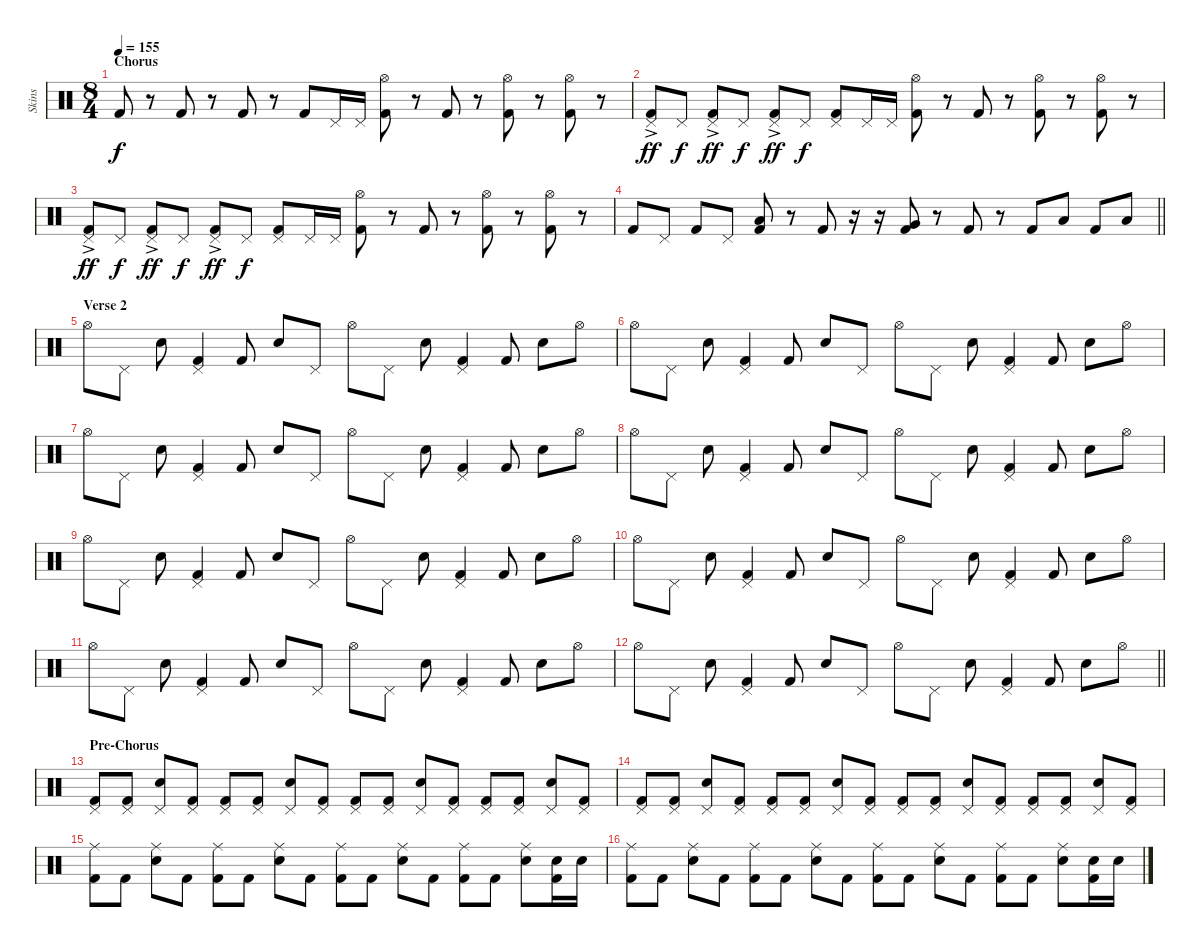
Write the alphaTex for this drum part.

\track ("Skins" "Skins") {instrument percussion}
\staff {score}
\articulation defaults
\ts (8 4)
\section ("" "Chorus")
\tempo 155
\clef neutral
\ks c "Kick (hit) 2".8{dy f}
r.8 "Kick (hit) 2".8 r.8 "Kick (hit) 2".8 r.8 "Kick (hit) 2".8 "Pedal Hi-Hat (hit)".16 "Pedal Hi-Hat (hit)".16 ("Hi-Hat (open)" "Kick (hit) 2").8 r.8 "Kick (hit) 2".8 r.8 ("Hi-Hat (open)" "Kick (hit) 2").8 r.8 ("Hi-Hat (open)" "Kick (hit) 2").8 r.8 |
("Pedal Hi-Hat (hit)"{ac} "Kick (hit) 2").8{dy ff} "Pedal Hi-Hat (hit)".8{dy f} ("Pedal Hi-Hat (hit)"{ac} "Kick (hit) 2").8{dy ff} "Pedal Hi-Hat (hit)".8{dy f} ("Pedal Hi-Hat (hit)"{ac} "Kick (hit) 2").8{dy ff} "Pedal Hi-Hat (hit)".8{dy f} ("Pedal Hi-Hat (hit)" "Kick (hit) 2").8 "Pedal Hi-Hat (hit)".16 "Pedal Hi-Hat (hit)".16 ("Hi-Hat (open)" "Kick (hit) 2").8 r.8 "Kick (hit) 2".8 r.8 ("Hi-Hat (open)" "Kick (hit) 2").8 r.8 ("Hi-Hat (open)" "Kick (hit) 2").8 r.8 |
("Pedal Hi-Hat (hit)"{ac} "Kick (hit) 2").8{dy ff} "Pedal Hi-Hat (hit)".8{dy f} ("Pedal Hi-Hat (hit)"{ac} "Kick (hit) 2").8{dy ff} "Pedal Hi-Hat (hit)".8{dy f} ("Pedal Hi-Hat (hit)"{ac} "Kick (hit) 2").8{dy ff} "Pedal Hi-Hat (hit)".8{dy f} ("Pedal Hi-Hat (hit)" "Kick (hit) 2").8 "Pedal Hi-Hat (hit)".16 "Pedal Hi-Hat (hit)".16 ("Hi-Hat (open)" "Kick (hit) 2").8 r.8 "Kick (hit) 2".8 r.8 ("Hi-Hat (open)" "Kick (hit) 2").8 r.8 ("Hi-Hat (open)" "Kick (hit) 2").8 r.8 |
\barLineRight lightlight "Kick (hit) 2".8 "Pedal Hi-Hat (hit)".8 "Kick (hit) 2".8 "Pedal Hi-Hat (hit)".8
("Low Tom (hit)" "Kick (hit) 2").8 r.8 "Kick (hit) 2".8 r.16 r.16 ("Very Low Tom (hit)" "Kick (hit) 2").8 r.8 "Kick (hit) 2".8 r.8 "Kick (hit) 2".8 "Low Tom (hit)".8 "Kick (hit) 2".8 "Low Floor Tom (hit)".8 |
\section ("" "Verse 2")
"Hi-Hat (open)".8 "Pedal Hi-Hat (hit)".8 "Electric Snare (hit)".8 ("Pedal Hi-Hat (hit)" "Kick (hit) 2").4 "Kick (hit) 2".8 "Electric Snare (hit)".8 "Pedal Hi-Hat (hit)".8 "Hi-Hat (open)".8 "Pedal Hi-Hat (hit)".8 "Electric Snare (hit)".8 ("Pedal Hi-Hat (hit)" "Kick (hit) 2").4 "Kick (hit) 2".8 "Electric Snare (hit)".8 "Hi-Hat (open)".8 |
"Hi-Hat (open)".8 "Pedal Hi-Hat (hit)".8 "Electric Snare (hit)".8 ("Pedal Hi-Hat (hit)" "Kick (hit) 2").4 "Kick (hit) 2".8 "Electric Snare (hit)".8 "Pedal Hi-Hat (hit)".8 "Hi-Hat (open)".8 "Pedal Hi-Hat (hit)".8 "Electric Snare (hit)".8 ("Pedal Hi-Hat (hit)" "Kick (hit) 2").4 "Kick (hit) 2".8 "Electric Snare (hit)".8 "Hi-Hat (open)".8 |
"Hi-Hat (open)".8 "Pedal Hi-Hat (hit)".8 "Electric Snare (hit)".8 ("Pedal Hi-Hat (hit)" "Kick (hit) 2").4 "Kick (hit) 2".8 "Electric Snare (hit)".8 "Pedal Hi-Hat (hit)".8 "Hi-Hat (open)".8 "Pedal Hi-Hat (hit)".8 "Electric Snare (hit)".8 ("Pedal Hi-Hat (hit)" "Kick (hit) 2").4 "Kick (hit) 2".8 "Electric Snare (hit)".8 "Hi-Hat (open)".8 |
"Hi-Hat (open)".8 "Pedal Hi-Hat (hit)".8 "Electric Snare (hit)".8 ("Pedal Hi-Hat (hit)" "Kick (hit) 2").4 "Kick (hit) 2".8 "Electric Snare (hit)".8 "Pedal Hi-Hat (hit)".8 "Hi-Hat (open)".8 "Pedal Hi-Hat (hit)".8 "Electric Snare (hit)".8 ("Pedal Hi-Hat (hit)" "Kick (hit) 2").4 "Kick (hit) 2".8 "Electric Snare (hit)".8 "Hi-Hat (open)".8 |
"Hi-Hat (open)".8 "Pedal Hi-Hat (hit)".8 "Electric Snare (hit)".8 ("Pedal Hi-Hat (hit)" "Kick (hit) 2").4 "Kick (hit) 2".8 "Electric Snare (hit)".8 "Pedal Hi-Hat (hit)".8 "Hi-Hat (open)".8 "Pedal Hi-Hat (hit)".8 "Electric Snare (hit)".8 ("Pedal Hi-Hat (hit)" "Kick (hit) 2").4 "Kick (hit) 2".8 "Electric Snare (hit)".8 "Hi-Hat (open)".8 |
"Hi-Hat (open)".8 "Pedal Hi-Hat (hit)".8 "Electric Snare (hit)".8 ("Pedal Hi-Hat (hit)" "Kick (hit) 2").4 "Kick (hit) 2".8 "Electric Snare (hit)".8 "Pedal Hi-Hat (hit)".8 "Hi-Hat (open)".8 "Pedal Hi-Hat (hit)".8 "Electric Snare (hit)".8 ("Pedal Hi-Hat (hit)" "Kick (hit) 2").4 "Kick (hit) 2".8 "Electric Snare (hit)".8 "Hi-Hat (open)".8 |
"Hi-Hat (open)".8 "Pedal Hi-Hat (hit)".8 "Electric Snare (hit)".8 ("Pedal Hi-Hat (hit)" "Kick (hit) 2").4 "Kick (hit) 2".8 "Electric Snare (hit)".8 "Pedal Hi-Hat (hit)".8 "Hi-Hat (open)".8 "Pedal Hi-Hat (hit)".8 "Electric Snare (hit)".8 ("Pedal Hi-Hat (hit)" "Kick (hit) 2").4 "Kick (hit) 2".8 "Electric Snare (hit)".8 "Hi-Hat (open)".8 |
\barLineRight lightlight "Hi-Hat (open)".8 "Pedal Hi-Hat (hit)".8 "Electric Snare (hit)".8
("Pedal Hi-Hat (hit)" "Kick (hit) 2").4 "Kick (hit) 2".8 "Electric Snare (hit)".8 "Pedal Hi-Hat (hit)".8 "Hi-Hat (open)".8 "Pedal Hi-Hat (hit)".8 "Electric Snare (hit)".8 ("Pedal Hi-Hat (hit)" "Kick (hit) 2").4 "Kick (hit) 2".8 "Electric Snare (hit)".8 "Hi-Hat (open)".8 |
\section ("" "Pre-Chorus")
("Pedal Hi-Hat (hit)" "Kick (hit) 2").8 ("Pedal Hi-Hat (hit)" "Kick (hit) 2").8 ("Pedal Hi-Hat (hit)" "Electric Snare (hit)").8 ("Pedal Hi-Hat (hit)" "Kick (hit) 2").8 ("Pedal Hi-Hat (hit)" "Kick (hit) 2").8 ("Pedal Hi-Hat (hit)" "Kick (hit) 2").8 ("Pedal Hi-Hat (hit)" "Electric Snare (hit)").8 ("Pedal Hi-Hat (hit)" "Kick (hit) 2").8 ("Pedal Hi-Hat (hit)" "Kick (hit) 2").8 ("Pedal Hi-Hat (hit)" "Kick (hit) 2").8 ("Pedal Hi-Hat (hit)" "Electric Snare (hit)").8 ("Pedal Hi-Hat (hit)" "Kick (hit) 2").8 ("Pedal Hi-Hat (hit)" "Kick (hit) 2").8 ("Pedal Hi-Hat (hit)" "Kick (hit) 2").8 ("Pedal Hi-Hat (hit)" "Electric Snare (hit)").8 ("Pedal Hi-Hat (hit)" "Kick (hit) 2").8 |
("Pedal Hi-Hat (hit)" "Kick (hit) 2").8 ("Pedal Hi-Hat (hit)" "Kick (hit) 2").8 ("Pedal Hi-Hat (hit)" "Electric Snare (hit)").8 ("Pedal Hi-Hat (hit)" "Kick (hit) 2").8 ("Pedal Hi-Hat (hit)" "Kick (hit) 2").8 ("Pedal Hi-Hat (hit)" "Kick (hit) 2").8 ("Pedal Hi-Hat (hit)" "Electric Snare (hit)").8 ("Pedal Hi-Hat (hit)" "Kick (hit) 2").8 ("Pedal Hi-Hat (hit)" "Kick (hit) 2").8 ("Pedal Hi-Hat (hit)" "Kick (hit) 2").8 ("Pedal Hi-Hat (hit)" "Electric Snare (hit)").8 ("Pedal Hi-Hat (hit)" "Kick (hit) 2").8 ("Pedal Hi-Hat (hit)" "Kick (hit) 2").8 ("Pedal Hi-Hat (hit)" "Kick (hit) 2").8 ("Pedal Hi-Hat (hit)" "Electric Snare (hit)").8 ("Pedal Hi-Hat (hit)" "Kick (hit) 2").8 |
("Ride (middle)" "Kick (hit) 2").8 "Kick (hit) 2".8 ("Ride (middle)" "Electric Snare (hit)").8 "Kick (hit) 2".8 ("Ride (middle)" "Kick (hit) 2").8 "Kick (hit) 2".8 ("Ride (middle)" "Electric Snare (hit)").8 "Kick (hit) 2".8 ("Ride (middle)" "Kick (hit) 2").8 "Kick (hit) 2".8 ("Ride (middle)" "Electric Snare (hit)").8 "Kick (hit) 2".8 ("Ride (middle)" "Kick (hit) 2").8 "Kick (hit) 2".8 ("Ride (middle)" "Electric Snare (hit)").8 ("Electric Snare (hit)" "Kick (hit) 2").16 "Electric Snare (hit)".16 |
("Ride (middle)" "Kick (hit) 2").8 "Kick (hit) 2".8 ("Ride (middle)" "Electric Snare (hit)").8 "Kick (hit) 2".8 ("Ride (middle)" "Kick (hit) 2").8 "Kick (hit) 2".8 ("Ride (middle)" "Electric Snare (hit)").8 "Kick (hit) 2".8 ("Ride (middle)" "Kick (hit) 2").8 "Kick (hit) 2".8 ("Ride (middle)" "Electric Snare (hit)").8 "Kick (hit) 2".8 ("Ride (middle)" "Kick (hit) 2").8 "Kick (hit) 2".8 ("Ride (middle)" "Electric Snare (hit)").8 ("Electric Snare (hit)" "Kick (hit) 2").16 "Electric Snare (hit)".16
